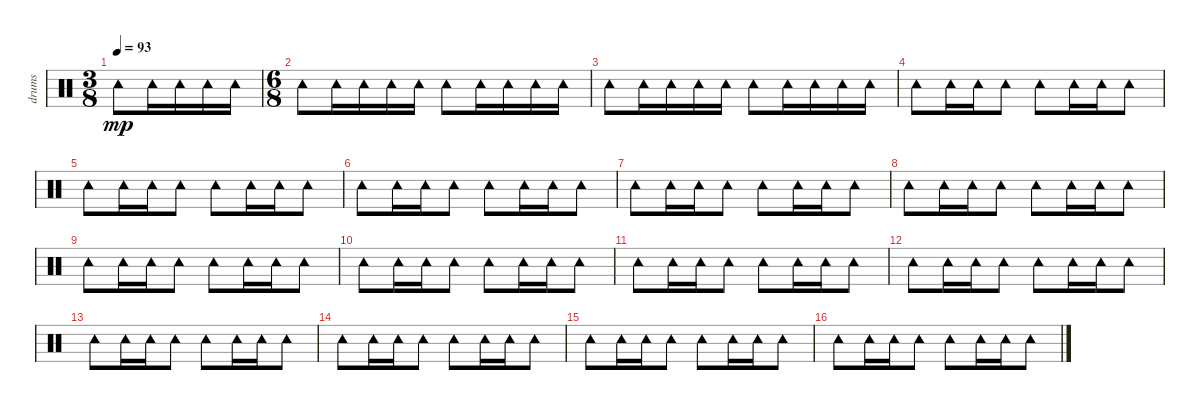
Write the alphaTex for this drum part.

\track ("drums" "drums") {instrument percussion}
\staff {score}
\articulation defaults
\ts (3 8)
\tempo 93
\clef neutral
\ks c "Tambourine (hit)".8{dy mp} "Tambourine (hit)".16 "Tambourine (hit)".16 "Tambourine (hit)".16 "Tambourine (hit)".16
|
\ts (6 8)
"Tambourine (hit)".8 "Tambourine (hit)".16 "Tambourine (hit)".16 "Tambourine (hit)".16 "Tambourine (hit)".16 "Tambourine (hit)".8 "Tambourine (hit)".16 "Tambourine (hit)".16 "Tambourine (hit)".16 "Tambourine (hit)".16 |
"Tambourine (hit)".8 "Tambourine (hit)".16 "Tambourine (hit)".16 "Tambourine (hit)".16 "Tambourine (hit)".16 "Tambourine (hit)".8 "Tambourine (hit)".16 "Tambourine (hit)".16 "Tambourine (hit)".16 "Tambourine (hit)".16 |
"Tambourine (hit)".8 "Tambourine (hit)".16 "Tambourine (hit)".16 "Tambourine (hit)".8 "Tambourine (hit)".8 "Tambourine (hit)".16 "Tambourine (hit)".16 "Tambourine (hit)".8 |
"Tambourine (hit)".8 "Tambourine (hit)".16 "Tambourine (hit)".16 "Tambourine (hit)".8 "Tambourine (hit)".8 "Tambourine (hit)".16 "Tambourine (hit)".16 "Tambourine (hit)".8 |
"Tambourine (hit)".8 "Tambourine (hit)".16 "Tambourine (hit)".16 "Tambourine (hit)".8 "Tambourine (hit)".8 "Tambourine (hit)".16 "Tambourine (hit)".16 "Tambourine (hit)".8 |
"Tambourine (hit)".8 "Tambourine (hit)".16 "Tambourine (hit)".16 "Tambourine (hit)".8 "Tambourine (hit)".8 "Tambourine (hit)".16 "Tambourine (hit)".16 "Tambourine (hit)".8 |
"Tambourine (hit)".8 "Tambourine (hit)".16 "Tambourine (hit)".16 "Tambourine (hit)".8 "Tambourine (hit)".8 "Tambourine (hit)".16 "Tambourine (hit)".16 "Tambourine (hit)".8 |
"Tambourine (hit)".8 "Tambourine (hit)".16 "Tambourine (hit)".16 "Tambourine (hit)".8 "Tambourine (hit)".8 "Tambourine (hit)".16 "Tambourine (hit)".16 "Tambourine (hit)".8 |
"Tambourine (hit)".8 "Tambourine (hit)".16 "Tambourine (hit)".16 "Tambourine (hit)".8 "Tambourine (hit)".8 "Tambourine (hit)".16 "Tambourine (hit)".16 "Tambourine (hit)".8 |
"Tambourine (hit)".8 "Tambourine (hit)".16 "Tambourine (hit)".16 "Tambourine (hit)".8 "Tambourine (hit)".8 "Tambourine (hit)".16 "Tambourine (hit)".16 "Tambourine (hit)".8 |
"Tambourine (hit)".8 "Tambourine (hit)".16 "Tambourine (hit)".16 "Tambourine (hit)".8 "Tambourine (hit)".8 "Tambourine (hit)".16 "Tambourine (hit)".16 "Tambourine (hit)".8 |
"Tambourine (hit)".8 "Tambourine (hit)".16 "Tambourine (hit)".16 "Tambourine (hit)".8 "Tambourine (hit)".8 "Tambourine (hit)".16 "Tambourine (hit)".16 "Tambourine (hit)".8 |
"Tambourine (hit)".8 "Tambourine (hit)".16 "Tambourine (hit)".16 "Tambourine (hit)".8 "Tambourine (hit)".8 "Tambourine (hit)".16 "Tambourine (hit)".16 "Tambourine (hit)".8 |
"Tambourine (hit)".8 "Tambourine (hit)".16 "Tambourine (hit)".16 "Tambourine (hit)".8 "Tambourine (hit)".8 "Tambourine (hit)".16 "Tambourine (hit)".16 "Tambourine (hit)".8 |
"Tambourine (hit)".8 "Tambourine (hit)".16 "Tambourine (hit)".16 "Tambourine (hit)".8 "Tambourine (hit)".8 "Tambourine (hit)".16 "Tambourine (hit)".16 "Tambourine (hit)".8
